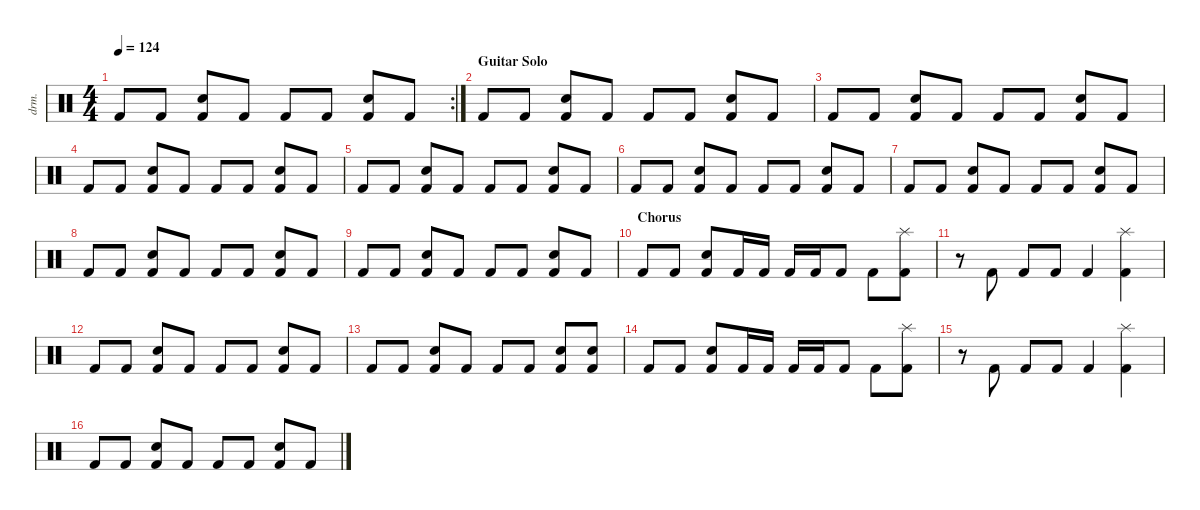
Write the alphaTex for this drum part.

\defaultSystemsLayout 4
\hideDynamics
\bracketExtendMode nobrackets
\otherSystemsTrackNameOrientation horizontal
\track ("Drums" "drm.") {instrument percussion}
\staff {score}
\articulation defaults
\rc 2
\ts (4 4)
\tempo 124
\clef neutral
\ks c "Kick (hit) 2".8{dy f beam Up} "Kick (hit) 2".8{beam Up}
("Kick (hit) 2" "Snare (hit) 2").8{beam Up} "Kick (hit) 2".8{beam Up} "Kick (hit) 2".8{beam Up} "Kick (hit) 2".8{beam Up} ("Kick (hit) 2" "Snare (hit) 2").8{beam Up} "Kick (hit) 2".8{beam Up} |
\section ("" "Guitar Solo")
"Kick (hit) 2".8{beam Up} "Kick (hit) 2".8{beam Up} ("Kick (hit) 2" "Snare (hit) 2").8{beam Up} "Kick (hit) 2".8{beam Up} "Kick (hit) 2".8{beam Up} "Kick (hit) 2".8{beam Up} ("Kick (hit) 2" "Snare (hit) 2").8{beam Up} "Kick (hit) 2".8{beam Up} |
"Kick (hit) 2".8{beam Up} "Kick (hit) 2".8{beam Up} ("Kick (hit) 2" "Snare (hit) 2").8{beam Up} "Kick (hit) 2".8{beam Up} "Kick (hit) 2".8{beam Up} "Kick (hit) 2".8{beam Up} ("Kick (hit) 2" "Snare (hit) 2").8{beam Up} "Kick (hit) 2".8{beam Up} |
"Kick (hit) 2".8{beam Up} "Kick (hit) 2".8{beam Up} ("Kick (hit) 2" "Snare (hit) 2").8{beam Up} "Kick (hit) 2".8{beam Up} "Kick (hit) 2".8{beam Up} "Kick (hit) 2".8{beam Up} ("Kick (hit) 2" "Snare (hit) 2").8{beam Up} "Kick (hit) 2".8{beam Up} |
"Kick (hit) 2".8{beam Up} "Kick (hit) 2".8{beam Up} ("Kick (hit) 2" "Snare (hit) 2").8{beam Up} "Kick (hit) 2".8{beam Up} "Kick (hit) 2".8{beam Up} "Kick (hit) 2".8{beam Up} ("Kick (hit) 2" "Snare (hit) 2").8{beam Up} "Kick (hit) 2".8{beam Up} |
"Kick (hit) 2".8{beam Up} "Kick (hit) 2".8{beam Up} ("Kick (hit) 2" "Snare (hit) 2").8{beam Up} "Kick (hit) 2".8{beam Up} "Kick (hit) 2".8{beam Up} "Kick (hit) 2".8{beam Up} ("Kick (hit) 2" "Snare (hit) 2").8{beam Up} "Kick (hit) 2".8{beam Up} |
"Kick (hit) 2".8{beam Up} "Kick (hit) 2".8{beam Up} ("Kick (hit) 2" "Snare (hit) 2").8{beam Up} "Kick (hit) 2".8{beam Up} "Kick (hit) 2".8{beam Up} "Kick (hit) 2".8{beam Up} ("Kick (hit) 2" "Snare (hit) 2").8{beam Up} "Kick (hit) 2".8{beam Up} |
"Kick (hit) 2".8{beam Up} "Kick (hit) 2".8{beam Up} ("Kick (hit) 2" "Snare (hit) 2").8{beam Up} "Kick (hit) 2".8{beam Up} "Kick (hit) 2".8{beam Up} "Kick (hit) 2".8{beam Up} ("Kick (hit) 2" "Snare (hit) 2").8{beam Up} "Kick (hit) 2".8{beam Up} |
"Kick (hit) 2".8{beam Up} "Kick (hit) 2".8{beam Up} ("Kick (hit) 2" "Snare (hit) 2").8{beam Up} "Kick (hit) 2".8{beam Up} "Kick (hit) 2".8{beam Up} "Kick (hit) 2".8{beam Up} ("Kick (hit) 2" "Snare (hit) 2").8{beam Up} "Kick (hit) 2".8{beam Up} |
\section ("" "Chorus")
"Kick (hit) 2".8{beam Up} "Kick (hit) 2".8{beam Up} ("Kick (hit) 2" "Snare (hit) 2").8{beam Up} "Kick (hit) 2".16{beam Up} "Kick (hit) 2".16{beam Up} "Kick (hit) 2".16{beam Up} "Kick (hit) 2".16{beam Up} "Kick (hit) 2".8{beam Up} "Kick (hit) 2".8{beam Down} ("Kick (hit) 2" "Splash (hit)").8{beam Down} |
r.8{beam Down} "Kick (hit) 2".8{beam Up} "Kick (hit) 2".8{beam Up} "Kick (hit) 2".8{beam Up} "Kick (hit) 2".4{beam Up} ("Kick (hit) 2" "Splash (hit)").4{beam Down} |
"Kick (hit) 2".8{beam Up} "Kick (hit) 2".8{beam Up} ("Kick (hit) 2" "Snare (hit) 2").8{beam Up} "Kick (hit) 2".8{beam Up} "Kick (hit) 2".8{beam Up} "Kick (hit) 2".8{beam Up} ("Kick (hit) 2" "Snare (hit) 2").8{beam Up} "Kick (hit) 2".8{beam Up} |
"Kick (hit) 2".8{beam Up} "Kick (hit) 2".8{beam Up} ("Kick (hit) 2" "Snare (hit) 2").8{beam Up} "Kick (hit) 2".8{beam Up} "Kick (hit) 2".8{beam Up} "Kick (hit) 2".8{beam Up} ("Kick (hit) 2" "Snare (hit) 2").8{beam Up} ("Kick (hit) 2" "Snare (hit) 2").8{beam Up} |
"Kick (hit) 2".8{beam Up} "Kick (hit) 2".8{beam Up} ("Kick (hit) 2" "Snare (hit) 2").8{beam Up} "Kick (hit) 2".16{beam Up} "Kick (hit) 2".16{beam Up} "Kick (hit) 2".16{beam Up} "Kick (hit) 2".16{beam Up} "Kick (hit) 2".8{beam Up} "Kick (hit) 2".8{beam Down} ("Kick (hit) 2" "Splash (hit)").8{beam Down} |
r.8{beam Down} "Kick (hit) 2".8{beam Up} "Kick (hit) 2".8{beam Up} "Kick (hit) 2".8{beam Up} "Kick (hit) 2".4{beam Up} ("Kick (hit) 2" "Splash (hit)").4{beam Down} |
"Kick (hit) 2".8{beam Up} "Kick (hit) 2".8{beam Up} ("Kick (hit) 2" "Snare (hit) 2").8{beam Up} "Kick (hit) 2".8{beam Up} "Kick (hit) 2".8{beam Up} "Kick (hit) 2".8{beam Up} ("Kick (hit) 2" "Snare (hit) 2").8{beam Up} "Kick (hit) 2".8{beam Up}
